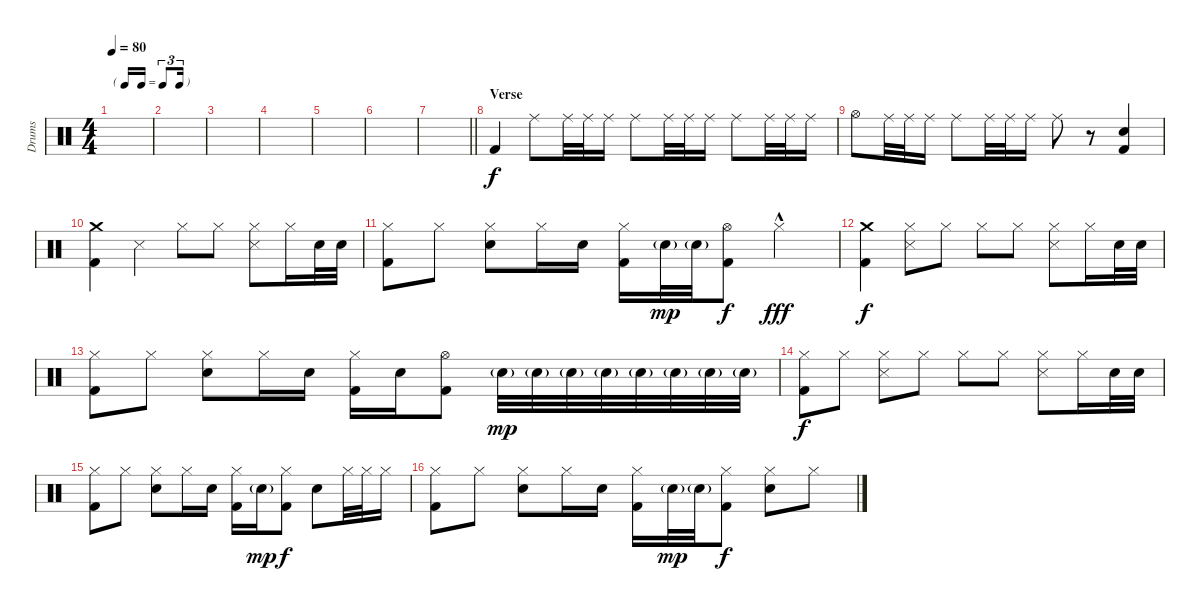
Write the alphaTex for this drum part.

\track ("Drums" "Drums") {instrument percussion}
\staff {score}
\articulation defaults
\ts (4 4)
\tf triplet16th
\tempo 80
\clef neutral
\ks c
|
|
|
|
|
|
\barLineRight lightlight
|
\section ("" "Verse")
"Kick (hit) 2".4 "Ride (middle)".8 "Ride (middle)".32 "Ride (middle)".32 "Ride (middle)".16 "Ride (middle)".8 "Ride (middle)".32 "Ride (middle)".32 "Ride (middle)".16 "Ride (middle)".8 "Ride (middle)".32 "Ride (middle)".32 "Ride (middle)".16 |
"Hi-Hat (open)".8 "Ride (middle)".32 "Ride (middle)".32 "Ride (middle)".16 "Ride (middle)".8 "Ride (middle)".32 "Ride (middle)".32 "Ride (middle)".16 "Ride (middle)".8 r.8 ("Snare (hit) 2" "Kick (hit) 2").4 |
("Crash medium (hit)" "Kick (hit) 2").4 "Snare (side stick) 3".4 "Hi-Hat (closed)".8 "Hi-Hat (closed)".8 ("Hi-Hat (closed)" "Snare (side stick) 3").8 "Hi-Hat (closed)".16 "Snare (hit) 2".32 "Snare (hit) 2".32 |
("Hi-Hat (closed)" "Kick (hit) 2").8 "Hi-Hat (closed)".8 ("Hi-Hat (closed)" "Snare (hit) 2").8 "Hi-Hat (closed)".16 "Snare (hit) 2".16 ("Hi-Hat (closed)" "Kick (hit) 2").16 "Snare (hit) 2"{g}.32{dy mp} "Snare (hit) 2"{g}.32 ("Hi-Hat (open)" "Kick (hit) 2").8{dy f} "Hi-Hat (closed)"{hac}.4{dy fff} |
("Crash medium (hit)" "Kick (hit) 2").4{dy f} ("Hi-Hat (closed)" "Snare (side stick) 3").8 "Hi-Hat (closed)".8 "Hi-Hat (closed)".8 "Hi-Hat (closed)".8 ("Hi-Hat (closed)" "Snare (side stick) 3").8 "Hi-Hat (closed)".16 "Snare (hit) 2".32 "Snare (hit) 2".32 |
("Hi-Hat (closed)" "Kick (hit) 2").8 "Hi-Hat (closed)".8 ("Hi-Hat (closed)" "Snare (hit) 2").8 "Hi-Hat (closed)".16 "Snare (hit) 2".16 ("Hi-Hat (closed)" "Kick (hit) 2").16 "Snare (hit) 2".16 ("Hi-Hat (open)" "Kick (hit) 2").8 "Snare (hit) 2"{g}.32{dy mp} "Snare (hit) 2"{g}.32 "Snare (hit) 2"{g}.32 "Snare (hit) 2"{g}.32 "Snare (hit) 2"{g}.32 "Snare (hit) 2"{g}.32 "Snare (hit) 2"{g}.32 "Snare (hit) 2"{g}.32 |
("Hi-Hat (closed)" "Kick (hit) 2").8{dy f} "Hi-Hat (closed)".8 ("Hi-Hat (closed)" "Snare (side stick) 3").8 "Hi-Hat (closed)".8 "Hi-Hat (closed)".8 "Hi-Hat (closed)".8 ("Hi-Hat (closed)" "Snare (side stick) 3").8 "Hi-Hat (closed)".16 "Snare (hit) 2".32 "Snare (hit) 2".32 |
("Hi-Hat (closed)" "Kick (hit) 2").8 "Hi-Hat (closed)".8 ("Hi-Hat (closed)" "Snare (hit) 2").8 "Hi-Hat (closed)".16 "Snare (hit) 2".16 ("Hi-Hat (closed)" "Kick (hit) 2").16 "Snare (hit) 2"{g}.16{dy mp} ("Hi-Hat (closed)" "Kick (hit) 2").8{dy f} "Snare (hit) 2".8 "Hi-Hat (closed)".32 "Hi-Hat (closed)".32 "Hi-Hat (closed)".16 |
("Hi-Hat (closed)" "Kick (hit) 2").8 "Hi-Hat (closed)".8 ("Hi-Hat (closed)" "Snare (hit) 2").8 "Hi-Hat (closed)".16 "Snare (hit) 2".16 ("Hi-Hat (closed)" "Kick (hit) 2").16 "Snare (hit) 2"{g}.32{dy mp} "Snare (hit) 2"{g}.32 ("Hi-Hat (closed)" "Kick (hit) 2").8{dy f} ("Hi-Hat (closed)" "Snare (hit) 2").8 "Hi-Hat (closed)".8
